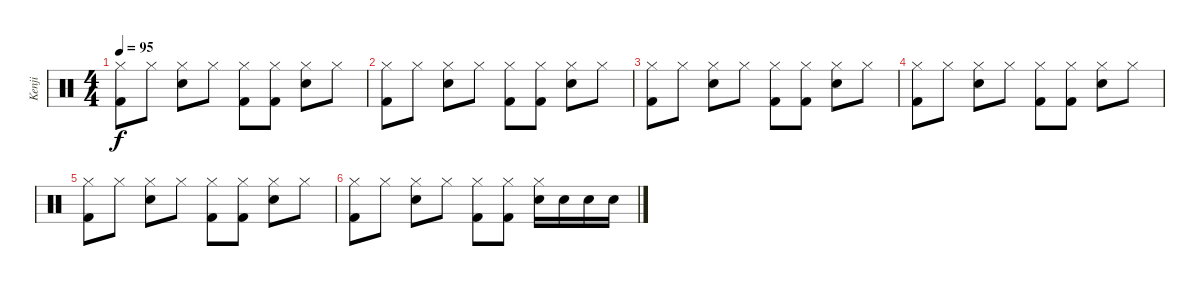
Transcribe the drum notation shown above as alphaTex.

\track ("Kenji" "Kenji") {instrument percussion}
\staff {score}
\articulation defaults
\ts (4 4)
\tempo 95
\clef neutral
\ks c
("Hi-Hat (closed)" "Kick (hit) 2").8{dy f} "Hi-Hat (closed)".8 ("Hi-Hat (closed)" "Electric Snare (hit)").8 "Hi-Hat (closed)".8 ("Hi-Hat (closed)" "Kick (hit) 2").8 ("Hi-Hat (closed)" "Kick (hit) 2").8 ("Hi-Hat (closed)" "Electric Snare (hit)").8 "Hi-Hat (closed)".8 |
("Hi-Hat (closed)" "Kick (hit) 2").8 "Hi-Hat (closed)".8 ("Hi-Hat (closed)" "Electric Snare (hit)").8 "Hi-Hat (closed)".8 ("Hi-Hat (closed)" "Kick (hit) 2").8 ("Hi-Hat (closed)" "Kick (hit) 2").8 ("Hi-Hat (closed)" "Electric Snare (hit)").8 "Hi-Hat (closed)".8 |
("Hi-Hat (closed)" "Kick (hit) 2").8 "Hi-Hat (closed)".8 ("Hi-Hat (closed)" "Electric Snare (hit)").8 "Hi-Hat (closed)".8 ("Hi-Hat (closed)" "Kick (hit) 2").8 ("Hi-Hat (closed)" "Kick (hit) 2").8 ("Hi-Hat (closed)" "Electric Snare (hit)").8 "Hi-Hat (closed)".8 |
("Hi-Hat (closed)" "Kick (hit) 2").8 "Hi-Hat (closed)".8 ("Hi-Hat (closed)" "Electric Snare (hit)").8 "Hi-Hat (closed)".8 ("Hi-Hat (closed)" "Kick (hit) 2").8 ("Hi-Hat (closed)" "Kick (hit) 2").8 ("Hi-Hat (closed)" "Electric Snare (hit)").8 "Hi-Hat (closed)".8 |
("Hi-Hat (closed)" "Kick (hit) 2").8 "Hi-Hat (closed)".8 ("Hi-Hat (closed)" "Electric Snare (hit)").8 "Hi-Hat (closed)".8 ("Hi-Hat (closed)" "Kick (hit) 2").8 ("Hi-Hat (closed)" "Kick (hit) 2").8 ("Hi-Hat (closed)" "Electric Snare (hit)").8 "Hi-Hat (closed)".8 |
("Hi-Hat (closed)" "Kick (hit) 2").8 "Hi-Hat (closed)".8 ("Hi-Hat (closed)" "Electric Snare (hit)").8 "Hi-Hat (closed)".8 ("Hi-Hat (closed)" "Kick (hit) 2").8 ("Hi-Hat (closed)" "Kick (hit) 2").8 ("Hi-Hat (closed)" "Electric Snare (hit)").16 "Electric Snare (hit)".16 "Electric Snare (hit)".16 "Electric Snare (hit)".16
